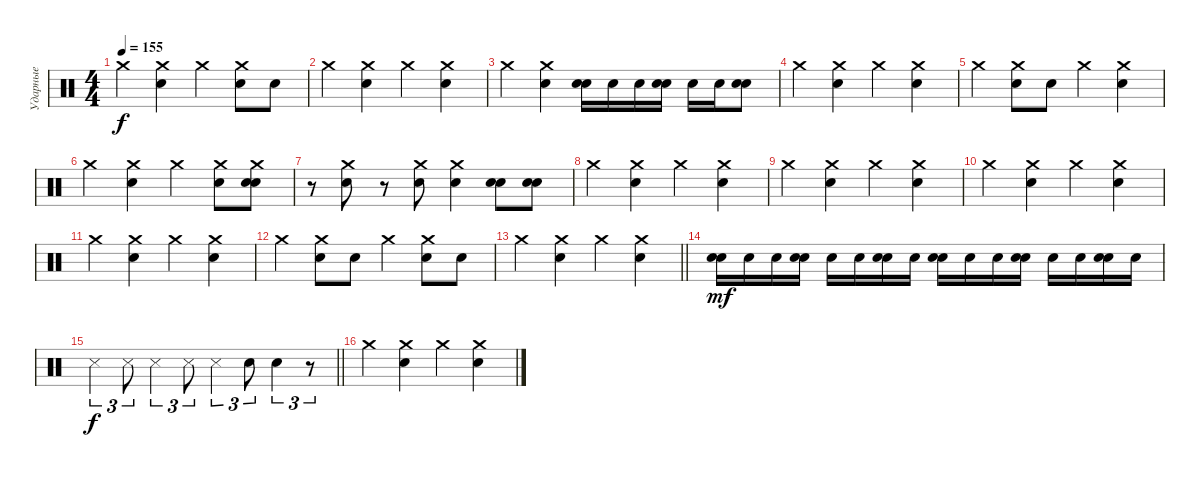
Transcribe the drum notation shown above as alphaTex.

\track ("Ударные" "Ударные") {instrument percussion}
\staff {score}
\articulation defaults
\ts (4 4)
\tempo 155
\clef neutral
\ks c "Crash medium (hit)".4{dy f}
("Crash medium (hit)" "Electric Snare (hit)").4 "Crash medium (hit)".4 ("Crash medium (hit)" "Electric Snare (hit)").8 "Electric Snare (hit)".8 |
"Crash medium (hit)".4 ("Crash medium (hit)" "Electric Snare (hit)").4 "Crash medium (hit)".4 ("Crash medium (hit)" "Electric Snare (hit)").4 |
"Crash medium (hit)".4 ("Crash medium (hit)" "Electric Snare (hit)").4 ("Electric Snare (hit)" "Snare (hit) 2").16 "Electric Snare (hit)".16 "Electric Snare (hit)".16 ("Electric Snare (hit)" "Snare (hit) 2").16 "Electric Snare (hit)".16 "Electric Snare (hit)".16 ("Electric Snare (hit)" "Snare (hit) 2").8 |
"Crash medium (hit)".4 ("Crash medium (hit)" "Electric Snare (hit)").4 "Crash medium (hit)".4 ("Crash medium (hit)" "Electric Snare (hit)").4 |
"Crash medium (hit)".4 ("Crash medium (hit)" "Electric Snare (hit)").8 "Electric Snare (hit)".8 "Crash medium (hit)".4 ("Crash medium (hit)" "Electric Snare (hit)").4 |
"Crash medium (hit)".4 ("Crash medium (hit)" "Electric Snare (hit)").4 "Crash medium (hit)".4 ("Crash medium (hit)" "Electric Snare (hit)").8 ("Crash medium (hit)" "Electric Snare (hit)" "Snare (hit) 2").8 |
r.8 ("Crash medium (hit)" "Electric Snare (hit)").8 r.8 ("Crash medium (hit)" "Snare (hit) 2").8 ("Crash medium (hit)" "Snare (hit) 2").4 ("Electric Snare (hit)" "Snare (hit) 2").8 ("Electric Snare (hit)" "Snare (hit) 2").8 |
"Crash medium (hit)".4 ("Crash medium (hit)" "Electric Snare (hit)").4 "Crash medium (hit)".4 ("Crash medium (hit)" "Electric Snare (hit)").4 |
"Crash medium (hit)".4 ("Crash medium (hit)" "Electric Snare (hit)").4 "Crash medium (hit)".4 ("Crash medium (hit)" "Electric Snare (hit)").4 |
"Crash medium (hit)".4 ("Crash medium (hit)" "Electric Snare (hit)").4 "Crash medium (hit)".4 ("Crash medium (hit)" "Electric Snare (hit)").4 |
"Crash medium (hit)".4 ("Crash medium (hit)" "Electric Snare (hit)").4 "Crash medium (hit)".4 ("Crash medium (hit)" "Electric Snare (hit)").4 |
"Crash medium (hit)".4 ("Crash medium (hit)" "Electric Snare (hit)").8 "Electric Snare (hit)".8 "Crash medium (hit)".4 ("Crash medium (hit)" "Electric Snare (hit)").8 "Electric Snare (hit)".8 |
\barLineRight lightlight "Crash medium (hit)".4
("Crash medium (hit)" "Electric Snare (hit)").4 "Crash medium (hit)".4 ("Crash medium (hit)" "Electric Snare (hit)").4 |
("Electric Snare (hit)" "Snare (hit) 2").16{dy mf} "Electric Snare (hit)".16 "Electric Snare (hit)".16 ("Electric Snare (hit)" "Snare (hit) 2").16 "Electric Snare (hit)".16 "Electric Snare (hit)".16 ("Electric Snare (hit)" "Snare (hit) 2").16 "Electric Snare (hit)".16 ("Electric Snare (hit)" "Snare (hit) 2").16 "Electric Snare (hit)".16 "Electric Snare (hit)".16 ("Electric Snare (hit)" "Snare (hit) 2").16 "Electric Snare (hit)".16 "Electric Snare (hit)".16 ("Electric Snare (hit)" "Snare (hit) 2").16 "Electric Snare (hit)".16 |
\barLineRight lightlight "Snare (side stick) 3".4{tu (3 2) dy f} "Snare (side stick) 3".8{tu (3 2)} "Snare (side stick) 3".4{tu (3 2)} "Snare (side stick) 3".8{tu (3 2)} "Snare (side stick) 3".4{tu (3 2)} "Electric Snare (hit)".8{tu (3 2)} "Electric Snare (hit)".4{tu (3 2)}
r.8{tu (3 2)} |
"Crash medium (hit)".4 ("Crash medium (hit)" "Electric Snare (hit)").4 "Crash medium (hit)".4 ("Crash medium (hit)" "Electric Snare (hit)").4
